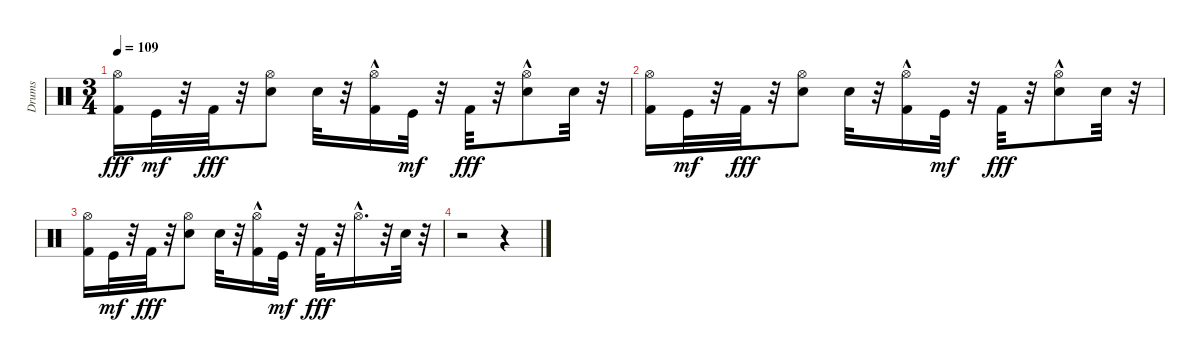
\track ("Drums" "Drums") {instrument percussion}
\staff {score}
\articulation defaults
\ts (3 4)
\tempo 109
\clef neutral
\ks c
("Kick (hit) 2" "Hi-Hat (open)").16{dy fff} "Kick (hit)".32{dy mf} r.32 "Kick (hit) 2".32{dy fff} r.32 ("Electric Snare (hit)" "Hi-Hat (open)").8 "Electric Snare (hit)".32 r.32 ("Kick (hit) 2" "Hi-Hat (open)"{hac}).16 "Kick (hit)".32{dy mf} r.32 "Kick (hit) 2".32{dy fff} r.32 ("Electric Snare (hit)" "Hi-Hat (open)"{hac}).8 "Electric Snare (hit)".32 r.32 |
("Kick (hit) 2" "Hi-Hat (open)").16 "Kick (hit)".32{dy mf} r.32 "Kick (hit) 2".32{dy fff} r.32 ("Electric Snare (hit)" "Hi-Hat (open)").8 "Electric Snare (hit)".32 r.32 ("Kick (hit) 2" "Hi-Hat (open)"{hac}).16 "Kick (hit)".32{dy mf} r.32 "Kick (hit) 2".32{dy fff} r.32 ("Electric Snare (hit)" "Hi-Hat (open)"{hac}).8 "Electric Snare (hit)".32 r.32 |
("Kick (hit) 2" "Hi-Hat (open)").16 "Kick (hit)".32{dy mf} r.32 "Kick (hit) 2".32{dy fff} r.32 ("Electric Snare (hit)" "Hi-Hat (open)").8 "Electric Snare (hit)".32 r.32 ("Kick (hit) 2" "Hi-Hat (open)"{hac}).16 "Kick (hit)".32{dy mf} r.32 "Kick (hit) 2".32{dy fff} r.32 "Hi-Hat (open)"{hac}.16{d} r.32 "Electric Snare (hit)".32 r.32 |
r.2 r.4
